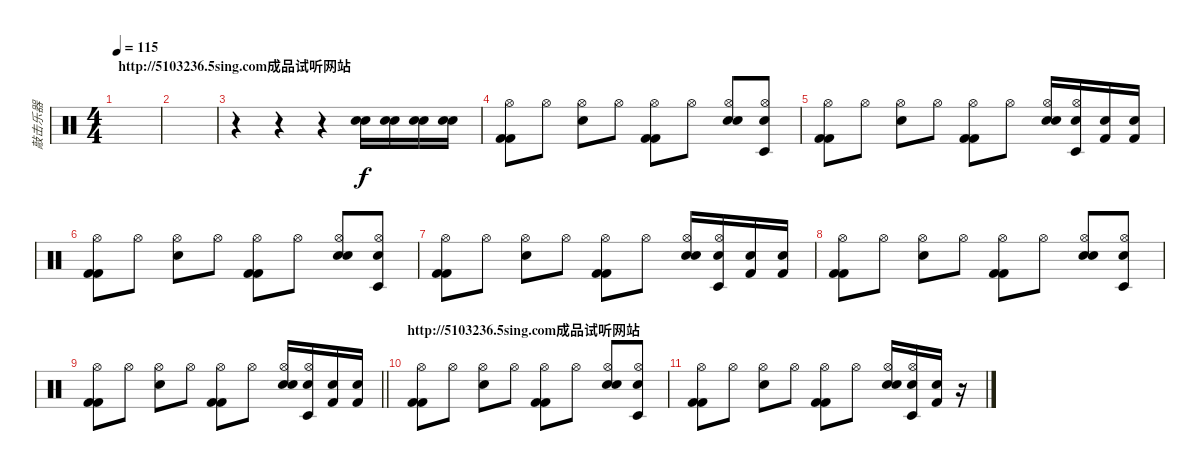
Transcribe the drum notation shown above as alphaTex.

\track ("敲击乐器" "敲击乐器") {instrument percussion}
\staff {score}
\articulation defaults
\ts (4 4)
\section ("" "http://5103236.5sing.com成品试听网站")
\tempo 115
\clef neutral
\ks c
|
|
r.4 r.4 r.4 ("Snare (hit) 2" "Electric Snare (hit)").16 ("Snare (hit) 2" "Electric Snare (hit)").16 ("Snare (hit) 2" "Electric Snare (hit)").16 ("Snare (hit) 2" "Electric Snare (hit)").16 |
("Hi-Hat (open)" "Kick (hit) 2" "Kick (hit) 2").8 "Hi-Hat (open)".8 ("Hi-Hat (open)" "Snare (hit) 2").8 "Hi-Hat (open)".8 ("Hi-Hat (open)" "Kick (hit) 2" "Kick (hit) 2").8 "Hi-Hat (open)".8 ("Hi-Hat (open)" "Snare (hit) 2" "Electric Snare (hit)").8 ("Hi-Hat (open)" "Timbale low (hit)" "Snare (hit) 2").8 |
("Hi-Hat (open)" "Kick (hit) 2" "Kick (hit) 2").8 "Hi-Hat (open)".8 ("Hi-Hat (open)" "Snare (hit) 2").8 "Hi-Hat (open)".8 ("Hi-Hat (open)" "Kick (hit) 2" "Kick (hit) 2").8 "Hi-Hat (open)".8 ("Hi-Hat (open)" "Snare (hit) 2" "Electric Snare (hit)").16 ("Hi-Hat (open)" "Timbale low (hit)" "Snare (hit) 2").16 ("Kick (hit) 2" "Snare (hit) 2").16 ("Snare (hit) 2" "Kick (hit) 2").16 |
("Hi-Hat (open)" "Kick (hit) 2" "Kick (hit) 2").8 "Hi-Hat (open)".8 ("Hi-Hat (open)" "Snare (hit) 2").8 "Hi-Hat (open)".8 ("Hi-Hat (open)" "Kick (hit) 2" "Kick (hit) 2").8 "Hi-Hat (open)".8 ("Hi-Hat (open)" "Snare (hit) 2" "Electric Snare (hit)").8 ("Hi-Hat (open)" "Timbale low (hit)" "Snare (hit) 2").8 |
("Hi-Hat (open)" "Kick (hit) 2" "Kick (hit) 2").8 "Hi-Hat (open)".8 ("Hi-Hat (open)" "Snare (hit) 2").8 "Hi-Hat (open)".8 ("Hi-Hat (open)" "Kick (hit) 2" "Kick (hit) 2").8 "Hi-Hat (open)".8 ("Hi-Hat (open)" "Snare (hit) 2" "Electric Snare (hit)").16 ("Hi-Hat (open)" "Timbale low (hit)" "Snare (hit) 2").16 ("Kick (hit) 2" "Snare (hit) 2").16 ("Snare (hit) 2" "Kick (hit) 2").16 |
("Hi-Hat (open)" "Kick (hit) 2" "Kick (hit) 2").8 "Hi-Hat (open)".8 ("Hi-Hat (open)" "Snare (hit) 2").8 "Hi-Hat (open)".8 ("Hi-Hat (open)" "Kick (hit) 2" "Kick (hit) 2").8 "Hi-Hat (open)".8 ("Hi-Hat (open)" "Snare (hit) 2" "Electric Snare (hit)").8 ("Hi-Hat (open)" "Timbale low (hit)" "Snare (hit) 2").8 |
\barLineRight lightlight
("Hi-Hat (open)" "Kick (hit) 2" "Kick (hit) 2").8 "Hi-Hat (open)".8 ("Hi-Hat (open)" "Snare (hit) 2").8 "Hi-Hat (open)".8 ("Hi-Hat (open)" "Kick (hit) 2" "Kick (hit) 2").8 "Hi-Hat (open)".8 ("Hi-Hat (open)" "Snare (hit) 2" "Electric Snare (hit)").16 ("Hi-Hat (open)" "Timbale low (hit)" "Snare (hit) 2").16 ("Kick (hit) 2" "Snare (hit) 2").16 ("Snare (hit) 2" "Kick (hit) 2").16 |
\section ("" "http://5103236.5sing.com成品试听网站")
("Hi-Hat (open)" "Kick (hit) 2" "Kick (hit) 2").8 "Hi-Hat (open)".8 ("Hi-Hat (open)" "Snare (hit) 2").8 "Hi-Hat (open)".8 ("Hi-Hat (open)" "Kick (hit) 2" "Kick (hit) 2").8 "Hi-Hat (open)".8 ("Hi-Hat (open)" "Snare (hit) 2" "Electric Snare (hit)").8 ("Hi-Hat (open)" "Timbale low (hit)" "Snare (hit) 2").8 |
("Hi-Hat (open)" "Kick (hit) 2" "Kick (hit) 2").8 "Hi-Hat (open)".8 ("Hi-Hat (open)" "Snare (hit) 2").8 "Hi-Hat (open)".8 ("Hi-Hat (open)" "Kick (hit) 2" "Kick (hit) 2").8 "Hi-Hat (open)".8 ("Hi-Hat (open)" "Snare (hit) 2" "Electric Snare (hit)").16 ("Hi-Hat (open)" "Timbale low (hit)" "Snare (hit) 2").16 ("Kick (hit) 2" "Snare (hit) 2").16 r.16
